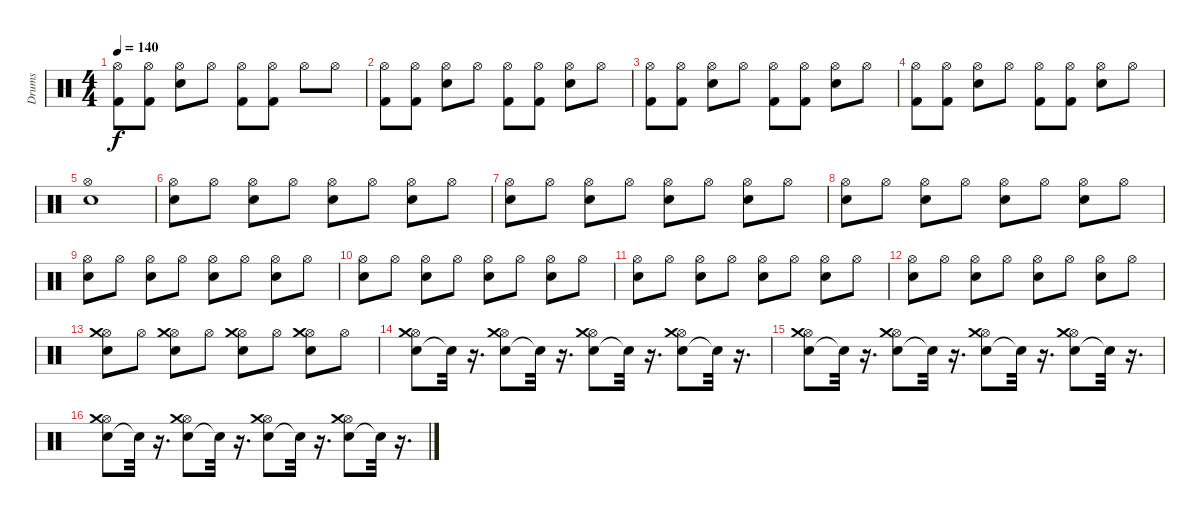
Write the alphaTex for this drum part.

\track ("Drums" "Drums") {instrument percussion}
\staff {score}
\articulation defaults
\ts (4 4)
\tempo 140
\clef neutral
\ks c
("Kick (hit) 2" "Hi-Hat (open)").8{dy f} ("Kick (hit) 2" "Hi-Hat (open)").8 ("Snare (hit) 2" "Hi-Hat (open)").8 "Hi-Hat (open)".8 ("Kick (hit) 2" "Hi-Hat (open)").8 ("Kick (hit) 2" "Hi-Hat (open)").8 "Hi-Hat (open)".8 "Hi-Hat (open)".8 |
("Kick (hit) 2" "Hi-Hat (open)").8 ("Kick (hit) 2" "Hi-Hat (open)").8 ("Snare (hit) 2" "Hi-Hat (open)").8 "Hi-Hat (open)".8 ("Kick (hit) 2" "Hi-Hat (open)").8 ("Kick (hit) 2" "Hi-Hat (open)").8 ("Hi-Hat (open)" "Snare (hit) 2").8 "Hi-Hat (open)".8 |
("Kick (hit) 2" "Hi-Hat (open)").8 ("Kick (hit) 2" "Hi-Hat (open)").8 ("Snare (hit) 2" "Hi-Hat (open)").8 "Hi-Hat (open)".8 ("Kick (hit) 2" "Hi-Hat (open)").8 ("Kick (hit) 2" "Hi-Hat (open)").8 ("Snare (hit) 2" "Hi-Hat (open)").8 "Hi-Hat (open)".8 |
("Kick (hit) 2" "Hi-Hat (open)").8 ("Kick (hit) 2" "Hi-Hat (open)").8 ("Snare (hit) 2" "Hi-Hat (open)").8 "Hi-Hat (open)".8 ("Kick (hit) 2" "Hi-Hat (open)").8 ("Kick (hit) 2" "Hi-Hat (open)").8 ("Snare (hit) 2" "Hi-Hat (open)").8 "Hi-Hat (open)".8 |
("Hi-Hat (open)" "Snare (hit) 2").1 |
("Snare (hit) 2" "Hi-Hat (open)").8 "Hi-Hat (open)".8 ("Snare (hit) 2" "Hi-Hat (open)").8 "Hi-Hat (open)".8 ("Snare (hit) 2" "Hi-Hat (open)").8 "Hi-Hat (open)".8 ("Snare (hit) 2" "Hi-Hat (open)").8 "Hi-Hat (open)".8 |
("Snare (hit) 2" "Hi-Hat (open)").8 "Hi-Hat (open)".8 ("Snare (hit) 2" "Hi-Hat (open)").8 "Hi-Hat (open)".8 ("Snare (hit) 2" "Hi-Hat (open)").8 "Hi-Hat (open)".8 ("Snare (hit) 2" "Hi-Hat (open)").8 "Hi-Hat (open)".8 |
("Snare (hit) 2" "Hi-Hat (open)").8 "Hi-Hat (open)".8 ("Snare (hit) 2" "Hi-Hat (open)").8 "Hi-Hat (open)".8 ("Snare (hit) 2" "Hi-Hat (open)").8 "Hi-Hat (open)".8 ("Snare (hit) 2" "Hi-Hat (open)").8 "Hi-Hat (open)".8 |
("Snare (hit) 2" "Hi-Hat (open)").8 "Hi-Hat (open)".8 ("Snare (hit) 2" "Hi-Hat (open)").8 "Hi-Hat (open)".8 ("Snare (hit) 2" "Hi-Hat (open)").8 "Hi-Hat (open)".8 ("Snare (hit) 2" "Hi-Hat (open)").8 "Hi-Hat (open)".8 |
("Snare (hit) 2" "Hi-Hat (open)").8 "Hi-Hat (open)".8 ("Snare (hit) 2" "Hi-Hat (open)").8 "Hi-Hat (open)".8 ("Snare (hit) 2" "Hi-Hat (open)").8 "Hi-Hat (open)".8 ("Snare (hit) 2" "Hi-Hat (open)").8 "Hi-Hat (open)".8 |
("Snare (hit) 2" "Hi-Hat (open)").8 "Hi-Hat (open)".8 ("Snare (hit) 2" "Hi-Hat (open)").8 "Hi-Hat (open)".8 ("Snare (hit) 2" "Hi-Hat (open)").8 "Hi-Hat (open)".8 ("Snare (hit) 2" "Hi-Hat (open)").8 "Hi-Hat (open)".8 |
("Snare (hit) 2" "Hi-Hat (open)").8 "Hi-Hat (open)".8 ("Snare (hit) 2" "Hi-Hat (open)").8 "Hi-Hat (open)".8 ("Snare (hit) 2" "Hi-Hat (open)").8 "Hi-Hat (open)".8 ("Snare (hit) 2" "Hi-Hat (open)").8 "Hi-Hat (open)".8 |
("Snare (hit) 2" "Hi-Hat (open)" "Crash medium (hit)").8 "Hi-Hat (open)".8 ("Snare (hit) 2" "Hi-Hat (open)" "Crash medium (hit)").8 "Hi-Hat (open)".8 ("Snare (hit) 2" "Hi-Hat (open)" "Crash medium (hit)").8 "Hi-Hat (open)".8 ("Snare (hit) 2" "Hi-Hat (open)" "Crash medium (hit)").8 "Hi-Hat (open)".8 |
("Snare (hit) 2" "Hi-Hat (open)" "Crash medium (hit)").8 "Snare (hit)"{t}.32 r.16{d} ("Snare (hit) 2" "Hi-Hat (open)" "Crash medium (hit)").8 "Snare (hit)"{t}.32 r.16{d} ("Snare (hit) 2" "Hi-Hat (open)" "Crash medium (hit)").8 "Snare (hit)"{t}.32 r.16{d} ("Snare (hit) 2" "Hi-Hat (open)" "Crash medium (hit)").8 "Snare (hit)"{t}.32 r.16{d} |
("Snare (hit) 2" "Hi-Hat (open)" "Crash medium (hit)").8 "Snare (hit)"{t}.32 r.16{d} ("Snare (hit) 2" "Hi-Hat (open)" "Crash medium (hit)").8 "Snare (hit)"{t}.32 r.16{d} ("Snare (hit) 2" "Hi-Hat (open)" "Crash medium (hit)").8 "Snare (hit)"{t}.32 r.16{d} ("Snare (hit) 2" "Hi-Hat (open)" "Crash medium (hit)").8 "Snare (hit)"{t}.32 r.16{d} |
("Snare (hit) 2" "Hi-Hat (open)" "Crash medium (hit)").8 "Snare (hit)"{t}.32 r.16{d} ("Snare (hit) 2" "Hi-Hat (open)" "Crash medium (hit)").8 "Snare (hit)"{t}.32 r.16{d} ("Snare (hit) 2" "Hi-Hat (open)" "Crash medium (hit)").8 "Snare (hit)"{t}.32 r.16{d} ("Snare (hit) 2" "Hi-Hat (open)" "Crash medium (hit)").8 "Snare (hit)"{t}.32 r.16{d}
